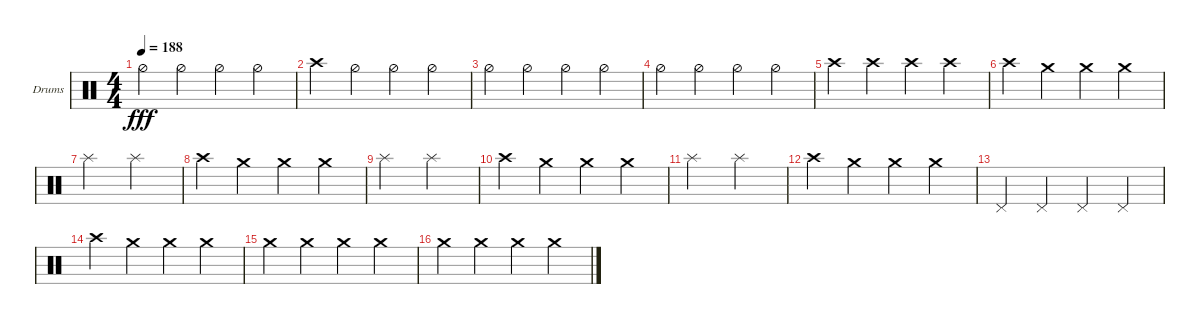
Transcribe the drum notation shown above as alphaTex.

\defaultSystemsLayout 4
\bracketExtendMode groupsimilarinstruments
\firstSystemTrackNameOrientation horizontal
\otherSystemsTrackNameOrientation horizontal
\track ("Пашок" "Drums") {instrument percussion}
\staff {score}
\articulation defaults
\ts (4 4)
\tempo 188
\clef neutral
\ks c "Hi-Hat (half)".4{dy fff} "Hi-Hat (half)".4 "Hi-Hat (half)".4 "Hi-Hat (half)".4
|
"Crash high (hit)".4 "Hi-Hat (half)".4 "Hi-Hat (half)".4 "Hi-Hat (half)".4 |
"Hi-Hat (half)".4 "Hi-Hat (half)".4 "Hi-Hat (half)".4 "Hi-Hat (half)".4 |
"Hi-Hat (half)".4 "Hi-Hat (half)".4 "Hi-Hat (half)".4 "Hi-Hat (half)".4 |
"Crash high (hit)".4 "Crash high (hit)".4 "Crash high (hit)".4 "Crash high (hit)".4 |
"Crash high (hit)".4 "Crash medium (hit)".4 "Crash medium (hit)".4 "Crash medium (hit)".4 |
"Splash (hit)".2 "Splash (hit)".2 |
"Crash high (hit)".4 "Crash medium (hit)".4 "Crash medium (hit)".4 "Crash medium (hit)".4 |
"Splash (hit)".2 "Splash (hit)".2 |
"Crash high (hit)".4 "Crash medium (hit)".4 "Crash medium (hit)".4 "Crash medium (hit)".4 |
"Splash (hit)".2 "Splash (hit)".2 |
"Crash high (hit)".4 "Crash medium (hit)".4 "Crash medium (hit)".4 "Crash medium (hit)".4 |
"Pedal Hi-Hat (hit)".4 "Pedal Hi-Hat (hit)".4 "Pedal Hi-Hat (hit)".4 "Pedal Hi-Hat (hit)".4 |
"Crash high (hit)".4 "Crash medium (hit)".4 "Crash medium (hit)".4 "Crash medium (hit)".4 |
"Crash medium (hit)".4 "Crash medium (hit)".4 "Crash medium (hit)".4 "Crash medium (hit)".4 |
"Crash medium (hit)".4 "Crash medium (hit)".4 "Crash medium (hit)".4 "Crash medium (hit)".4
